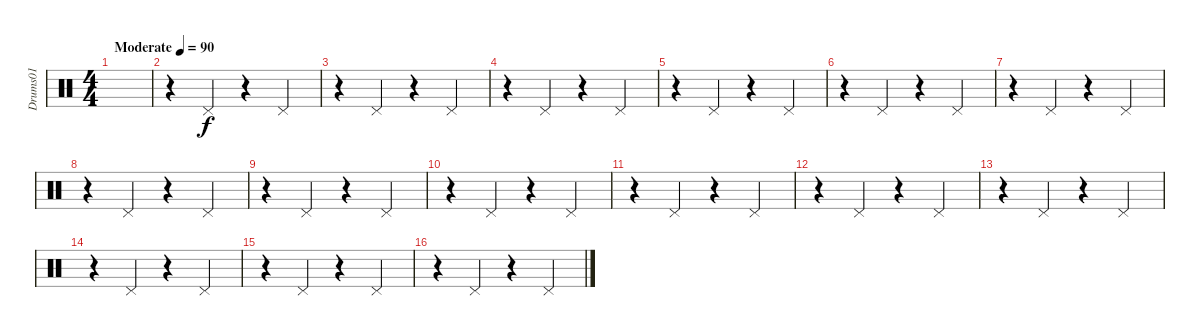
\track ("Drums01" "Drums01") {instrument percussion}
\staff {score}
\articulation defaults
\ts (4 4)
\tempo (90 "Moderate")
\clef neutral
\ks c
|
r.4 "Pedal Hi-Hat (hit)".4 r.4 "Pedal Hi-Hat (hit)".4 |
r.4 "Pedal Hi-Hat (hit)".4 r.4 "Pedal Hi-Hat (hit)".4 |
r.4 "Pedal Hi-Hat (hit)".4 r.4 "Pedal Hi-Hat (hit)".4 |
r.4 "Pedal Hi-Hat (hit)".4 r.4 "Pedal Hi-Hat (hit)".4 |
r.4 "Pedal Hi-Hat (hit)".4 r.4 "Pedal Hi-Hat (hit)".4 |
r.4 "Pedal Hi-Hat (hit)".4 r.4 "Pedal Hi-Hat (hit)".4 |
r.4 "Pedal Hi-Hat (hit)".4 r.4 "Pedal Hi-Hat (hit)".4 |
r.4 "Pedal Hi-Hat (hit)".4 r.4 "Pedal Hi-Hat (hit)".4 |
r.4 "Pedal Hi-Hat (hit)".4 r.4 "Pedal Hi-Hat (hit)".4 |
r.4 "Pedal Hi-Hat (hit)".4 r.4 "Pedal Hi-Hat (hit)".4 |
r.4 "Pedal Hi-Hat (hit)".4 r.4 "Pedal Hi-Hat (hit)".4 |
r.4 "Pedal Hi-Hat (hit)".4 r.4 "Pedal Hi-Hat (hit)".4 |
r.4 "Pedal Hi-Hat (hit)".4 r.4 "Pedal Hi-Hat (hit)".4 |
r.4 "Pedal Hi-Hat (hit)".4 r.4 "Pedal Hi-Hat (hit)".4 |
r.4 "Pedal Hi-Hat (hit)".4 r.4 "Pedal Hi-Hat (hit)".4
